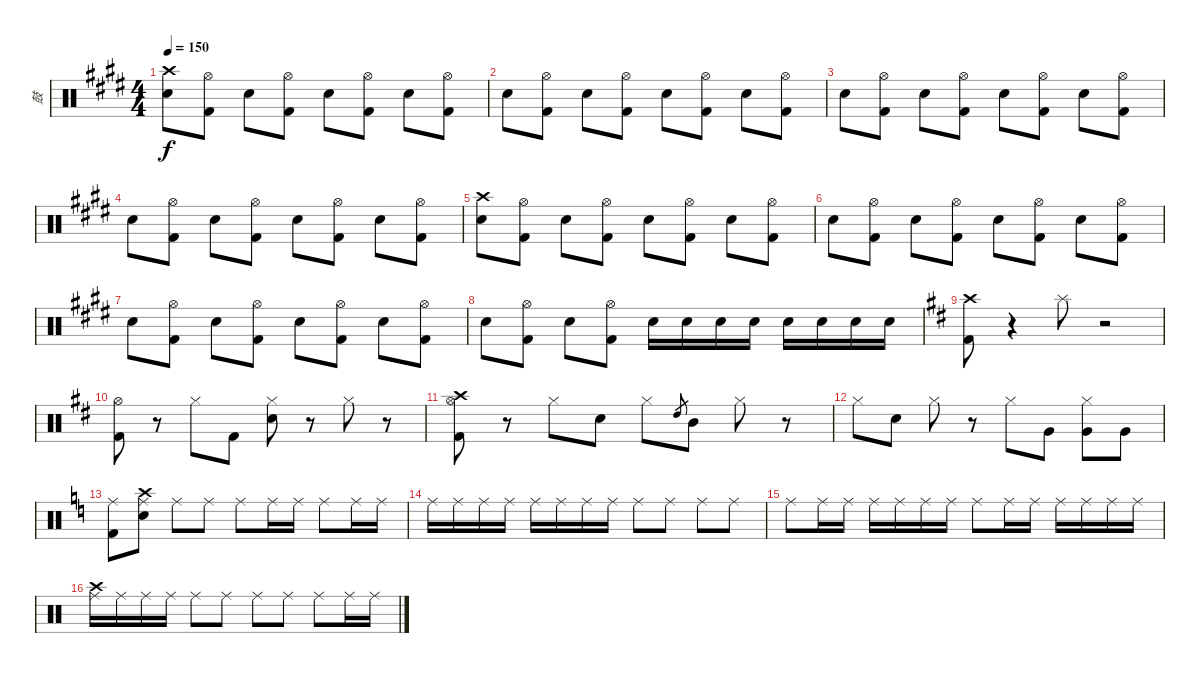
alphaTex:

\track ("鼓" "鼓") {instrument percussion}
\staff {score}
\articulation defaults
\ts (4 4)
\tempo 150
\clef neutral
\ks e
("Crash high (hit)" "Snare (hit) 2").8{dy f} ("Hi-Hat (open)" "Kick (hit) 2").8 "Snare (hit) 2".8 ("Hi-Hat (open)" "Kick (hit) 2").8 "Snare (hit) 2".8 ("Hi-Hat (open)" "Kick (hit) 2").8 "Snare (hit) 2".8 ("Hi-Hat (open)" "Kick (hit) 2").8 |
"Snare (hit) 2".8 ("Hi-Hat (open)" "Kick (hit) 2").8 "Snare (hit) 2".8 ("Hi-Hat (open)" "Kick (hit) 2").8 "Snare (hit) 2".8 ("Hi-Hat (open)" "Kick (hit) 2").8 "Snare (hit) 2".8 ("Hi-Hat (open)" "Kick (hit) 2").8 |
"Snare (hit) 2".8 ("Hi-Hat (open)" "Kick (hit) 2").8 "Snare (hit) 2".8 ("Hi-Hat (open)" "Kick (hit) 2").8 "Snare (hit) 2".8 ("Hi-Hat (open)" "Kick (hit) 2").8 "Snare (hit) 2".8 ("Hi-Hat (open)" "Kick (hit) 2").8 |
"Snare (hit) 2".8 ("Hi-Hat (open)" "Kick (hit) 2").8 "Snare (hit) 2".8 ("Hi-Hat (open)" "Kick (hit) 2").8 "Snare (hit) 2".8 ("Hi-Hat (open)" "Kick (hit) 2").8 "Snare (hit) 2".8 ("Hi-Hat (open)" "Kick (hit) 2").8 |
("Crash high (hit)" "Snare (hit) 2").8 ("Hi-Hat (open)" "Kick (hit) 2").8 "Snare (hit) 2".8 ("Hi-Hat (open)" "Kick (hit) 2").8 "Snare (hit) 2".8 ("Hi-Hat (open)" "Kick (hit) 2").8 "Snare (hit) 2".8 ("Hi-Hat (open)" "Kick (hit) 2").8 |
"Snare (hit) 2".8 ("Hi-Hat (open)" "Kick (hit) 2").8 "Snare (hit) 2".8 ("Hi-Hat (open)" "Kick (hit) 2").8 "Snare (hit) 2".8 ("Hi-Hat (open)" "Kick (hit) 2").8 "Snare (hit) 2".8 ("Hi-Hat (open)" "Kick (hit) 2").8 |
"Snare (hit) 2".8 ("Hi-Hat (open)" "Kick (hit) 2").8 "Snare (hit) 2".8 ("Hi-Hat (open)" "Kick (hit) 2").8 "Snare (hit) 2".8 ("Hi-Hat (open)" "Kick (hit) 2").8 "Snare (hit) 2".8 ("Hi-Hat (open)" "Kick (hit) 2").8 |
"Snare (hit) 2".8 ("Hi-Hat (open)" "Kick (hit) 2").8 "Snare (hit) 2".8 ("Hi-Hat (open)" "Kick (hit) 2").8 "Snare (hit) 2".16 "Snare (hit) 2".16 "Snare (hit) 2".16 "Snare (hit) 2".16 "Snare (hit) 2".16 "Snare (hit) 2".16 "Snare (hit) 2".16 "Snare (hit) 2".16 |
\ks d
("Crash high (hit)" "Kick (hit) 2").8 r.4 "Splash (hit)".8 r.2 |
("Hi-Hat (open)" "Kick (hit) 2").8 r.8 "Hi-Hat (closed)".8 "Kick (hit) 2".8 ("Hi-Hat (closed)" "Snare (hit) 2").8 r.8 "Hi-Hat (closed)".8 r.8 |
("Crash high (hit)" "Hi-Hat (open)" "Kick (hit) 2").8 r.8 "Hi-Hat (closed)".8 "Snare (hit) 2".8 "Hi-Hat (closed)".8 "High Tom (hit)".8{gr} "Mid Tom (hit)".8 "Hi-Hat (closed)".8 r.8 |
"Hi-Hat (closed)".8 "Snare (hit) 2".8 "Hi-Hat (closed)".8 r.8 "Hi-Hat (closed)".8 "Very Low Tom (hit)".8 ("Hi-Hat (closed)" "Very Low Tom (hit)").8 "Very Low Tom (hit)".8 |
\ks c
("Ride (middle)" "Kick (hit) 2").8 ("Crash high (hit)" "Ride (middle)" "Snare (hit) 2").8 "Ride (middle)".8 "Ride (middle)".8 "Ride (middle)".8 "Ride (middle)".16 "Ride (middle)".16 "Ride (middle)".8 "Ride (middle)".16 "Ride (middle)".16 |
"Ride (middle)".16 "Ride (middle)".16 "Ride (middle)".16 "Ride (middle)".16 "Ride (middle)".16 "Ride (middle)".16 "Ride (middle)".16 "Ride (middle)".16 "Ride (middle)".8 "Ride (middle)".8 "Ride (middle)".8 "Ride (middle)".8 |
"Ride (middle)".8 "Ride (middle)".16 "Ride (middle)".16 "Ride (middle)".16 "Ride (middle)".16 "Ride (middle)".16 "Ride (middle)".16 "Ride (middle)".8 "Ride (middle)".16 "Ride (middle)".16 "Ride (middle)".16 "Ride (middle)".16 "Ride (middle)".16 "Ride (middle)".16 |
("Crash high (hit)" "Ride (middle)").16 "Ride (middle)".16 "Ride (middle)".16 "Ride (middle)".16 "Ride (middle)".8 "Ride (middle)".8 "Ride (middle)".8 "Ride (middle)".8 "Ride (middle)".8 "Ride (middle)".16 "Ride (middle)".16
